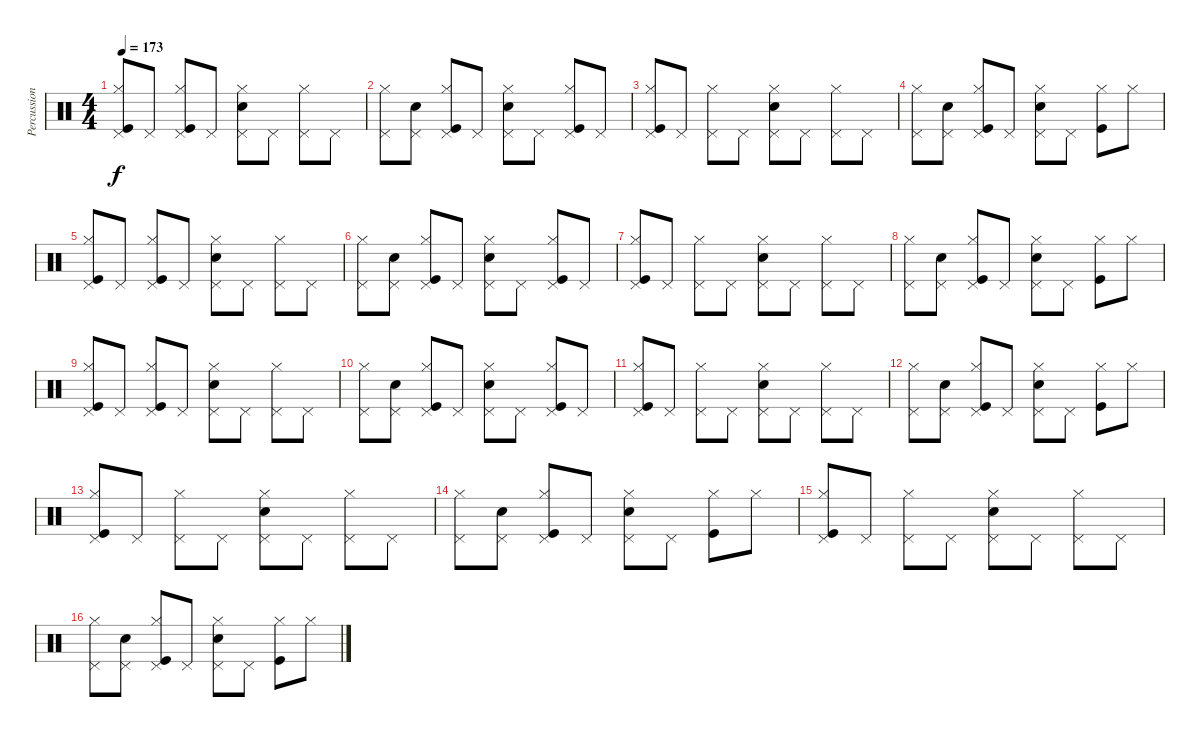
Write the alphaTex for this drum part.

\track ("Percussion" "Percussion") {instrument percussion}
\staff {score}
\articulation defaults
\ts (4 4)
\tempo 173
\clef neutral
\ks c
("Kick (hit)" "Hi-Hat (closed)" "Pedal Hi-Hat (hit)").8{dy f} "Pedal Hi-Hat (hit)".8 ("Kick (hit)" "Hi-Hat (closed)" "Pedal Hi-Hat (hit)").8 "Pedal Hi-Hat (hit)".8 ("Snare (hit) 2" "Hi-Hat (closed)" "Pedal Hi-Hat (hit)").8 "Pedal Hi-Hat (hit)".8 ("Hi-Hat (closed)" "Pedal Hi-Hat (hit)").8 "Pedal Hi-Hat (hit)".8 |
("Hi-Hat (closed)" "Pedal Hi-Hat (hit)").8 ("Snare (hit) 2" "Pedal Hi-Hat (hit)").8 ("Kick (hit)" "Hi-Hat (closed)" "Pedal Hi-Hat (hit)").8 "Pedal Hi-Hat (hit)".8 ("Snare (hit) 2" "Hi-Hat (closed)" "Pedal Hi-Hat (hit)").8 "Pedal Hi-Hat (hit)".8 ("Kick (hit)" "Hi-Hat (closed)" "Pedal Hi-Hat (hit)").8 "Pedal Hi-Hat (hit)".8 |
("Kick (hit)" "Hi-Hat (closed)" "Pedal Hi-Hat (hit)").8 "Pedal Hi-Hat (hit)".8 ("Hi-Hat (closed)" "Pedal Hi-Hat (hit)").8 "Pedal Hi-Hat (hit)".8 ("Snare (hit) 2" "Hi-Hat (closed)" "Pedal Hi-Hat (hit)").8 "Pedal Hi-Hat (hit)".8 ("Hi-Hat (closed)" "Pedal Hi-Hat (hit)").8 "Pedal Hi-Hat (hit)".8 |
("Hi-Hat (closed)" "Pedal Hi-Hat (hit)").8 ("Snare (hit) 2" "Pedal Hi-Hat (hit)").8 ("Kick (hit)" "Hi-Hat (closed)" "Pedal Hi-Hat (hit)").8 "Pedal Hi-Hat (hit)".8 ("Snare (hit) 2" "Hi-Hat (closed)" "Pedal Hi-Hat (hit)").8 "Pedal Hi-Hat (hit)".8 ("Kick (hit)" "Hi-Hat (closed)").8 "Hi-Hat (closed)".8 |
("Kick (hit)" "Hi-Hat (closed)" "Pedal Hi-Hat (hit)").8 "Pedal Hi-Hat (hit)".8 ("Kick (hit)" "Hi-Hat (closed)" "Pedal Hi-Hat (hit)").8 "Pedal Hi-Hat (hit)".8 ("Snare (hit) 2" "Hi-Hat (closed)" "Pedal Hi-Hat (hit)").8 "Pedal Hi-Hat (hit)".8 ("Hi-Hat (closed)" "Pedal Hi-Hat (hit)").8 "Pedal Hi-Hat (hit)".8 |
("Hi-Hat (closed)" "Pedal Hi-Hat (hit)").8 ("Snare (hit) 2" "Pedal Hi-Hat (hit)").8 ("Kick (hit)" "Hi-Hat (closed)" "Pedal Hi-Hat (hit)").8 "Pedal Hi-Hat (hit)".8 ("Snare (hit) 2" "Hi-Hat (closed)" "Pedal Hi-Hat (hit)").8 "Pedal Hi-Hat (hit)".8 ("Kick (hit)" "Hi-Hat (closed)" "Pedal Hi-Hat (hit)").8 "Pedal Hi-Hat (hit)".8 |
("Kick (hit)" "Hi-Hat (closed)" "Pedal Hi-Hat (hit)").8 "Pedal Hi-Hat (hit)".8 ("Hi-Hat (closed)" "Pedal Hi-Hat (hit)").8 "Pedal Hi-Hat (hit)".8 ("Snare (hit) 2" "Hi-Hat (closed)" "Pedal Hi-Hat (hit)").8 "Pedal Hi-Hat (hit)".8 ("Hi-Hat (closed)" "Pedal Hi-Hat (hit)").8 "Pedal Hi-Hat (hit)".8 |
("Hi-Hat (closed)" "Pedal Hi-Hat (hit)").8 ("Snare (hit) 2" "Pedal Hi-Hat (hit)").8 ("Kick (hit)" "Hi-Hat (closed)" "Pedal Hi-Hat (hit)").8 "Pedal Hi-Hat (hit)".8 ("Snare (hit) 2" "Hi-Hat (closed)" "Pedal Hi-Hat (hit)").8 "Pedal Hi-Hat (hit)".8 ("Kick (hit)" "Hi-Hat (closed)").8 "Hi-Hat (closed)".8 |
("Kick (hit)" "Hi-Hat (closed)" "Pedal Hi-Hat (hit)").8 "Pedal Hi-Hat (hit)".8 ("Kick (hit)" "Hi-Hat (closed)" "Pedal Hi-Hat (hit)").8 "Pedal Hi-Hat (hit)".8 ("Snare (hit) 2" "Hi-Hat (closed)" "Pedal Hi-Hat (hit)").8 "Pedal Hi-Hat (hit)".8 ("Hi-Hat (closed)" "Pedal Hi-Hat (hit)").8 "Pedal Hi-Hat (hit)".8 |
("Hi-Hat (closed)" "Pedal Hi-Hat (hit)").8 ("Snare (hit) 2" "Pedal Hi-Hat (hit)").8 ("Kick (hit)" "Hi-Hat (closed)" "Pedal Hi-Hat (hit)").8 "Pedal Hi-Hat (hit)".8 ("Snare (hit) 2" "Hi-Hat (closed)" "Pedal Hi-Hat (hit)").8 "Pedal Hi-Hat (hit)".8 ("Kick (hit)" "Hi-Hat (closed)" "Pedal Hi-Hat (hit)").8 "Pedal Hi-Hat (hit)".8 |
("Kick (hit)" "Hi-Hat (closed)" "Pedal Hi-Hat (hit)").8 "Pedal Hi-Hat (hit)".8 ("Hi-Hat (closed)" "Pedal Hi-Hat (hit)").8 "Pedal Hi-Hat (hit)".8 ("Snare (hit) 2" "Hi-Hat (closed)" "Pedal Hi-Hat (hit)").8 "Pedal Hi-Hat (hit)".8 ("Hi-Hat (closed)" "Pedal Hi-Hat (hit)").8 "Pedal Hi-Hat (hit)".8 |
("Hi-Hat (closed)" "Pedal Hi-Hat (hit)").8 ("Snare (hit) 2" "Pedal Hi-Hat (hit)").8 ("Kick (hit)" "Hi-Hat (closed)" "Pedal Hi-Hat (hit)").8 "Pedal Hi-Hat (hit)".8 ("Snare (hit) 2" "Hi-Hat (closed)" "Pedal Hi-Hat (hit)").8 "Pedal Hi-Hat (hit)".8 ("Kick (hit)" "Hi-Hat (closed)").8 "Hi-Hat (closed)".8 |
("Kick (hit)" "Hi-Hat (closed)" "Pedal Hi-Hat (hit)").8 "Pedal Hi-Hat (hit)".8 ("Hi-Hat (closed)" "Pedal Hi-Hat (hit)").8 "Pedal Hi-Hat (hit)".8 ("Snare (hit) 2" "Hi-Hat (closed)" "Pedal Hi-Hat (hit)").8 "Pedal Hi-Hat (hit)".8 ("Hi-Hat (closed)" "Pedal Hi-Hat (hit)").8 "Pedal Hi-Hat (hit)".8 |
("Hi-Hat (closed)" "Pedal Hi-Hat (hit)").8 ("Snare (hit) 2" "Pedal Hi-Hat (hit)").8 ("Kick (hit)" "Hi-Hat (closed)" "Pedal Hi-Hat (hit)").8 "Pedal Hi-Hat (hit)".8 ("Snare (hit) 2" "Hi-Hat (closed)" "Pedal Hi-Hat (hit)").8 "Pedal Hi-Hat (hit)".8 ("Kick (hit)" "Hi-Hat (closed)").8 "Hi-Hat (closed)".8 |
("Kick (hit)" "Hi-Hat (closed)" "Pedal Hi-Hat (hit)").8 "Pedal Hi-Hat (hit)".8 ("Hi-Hat (closed)" "Pedal Hi-Hat (hit)").8 "Pedal Hi-Hat (hit)".8 ("Snare (hit) 2" "Hi-Hat (closed)" "Pedal Hi-Hat (hit)").8 "Pedal Hi-Hat (hit)".8 ("Hi-Hat (closed)" "Pedal Hi-Hat (hit)").8 "Pedal Hi-Hat (hit)".8 |
("Hi-Hat (closed)" "Pedal Hi-Hat (hit)").8 ("Snare (hit) 2" "Pedal Hi-Hat (hit)").8 ("Kick (hit)" "Hi-Hat (closed)" "Pedal Hi-Hat (hit)").8 "Pedal Hi-Hat (hit)".8 ("Snare (hit) 2" "Hi-Hat (closed)" "Pedal Hi-Hat (hit)").8 "Pedal Hi-Hat (hit)".8 ("Kick (hit)" "Hi-Hat (closed)").8 "Hi-Hat (closed)".8
